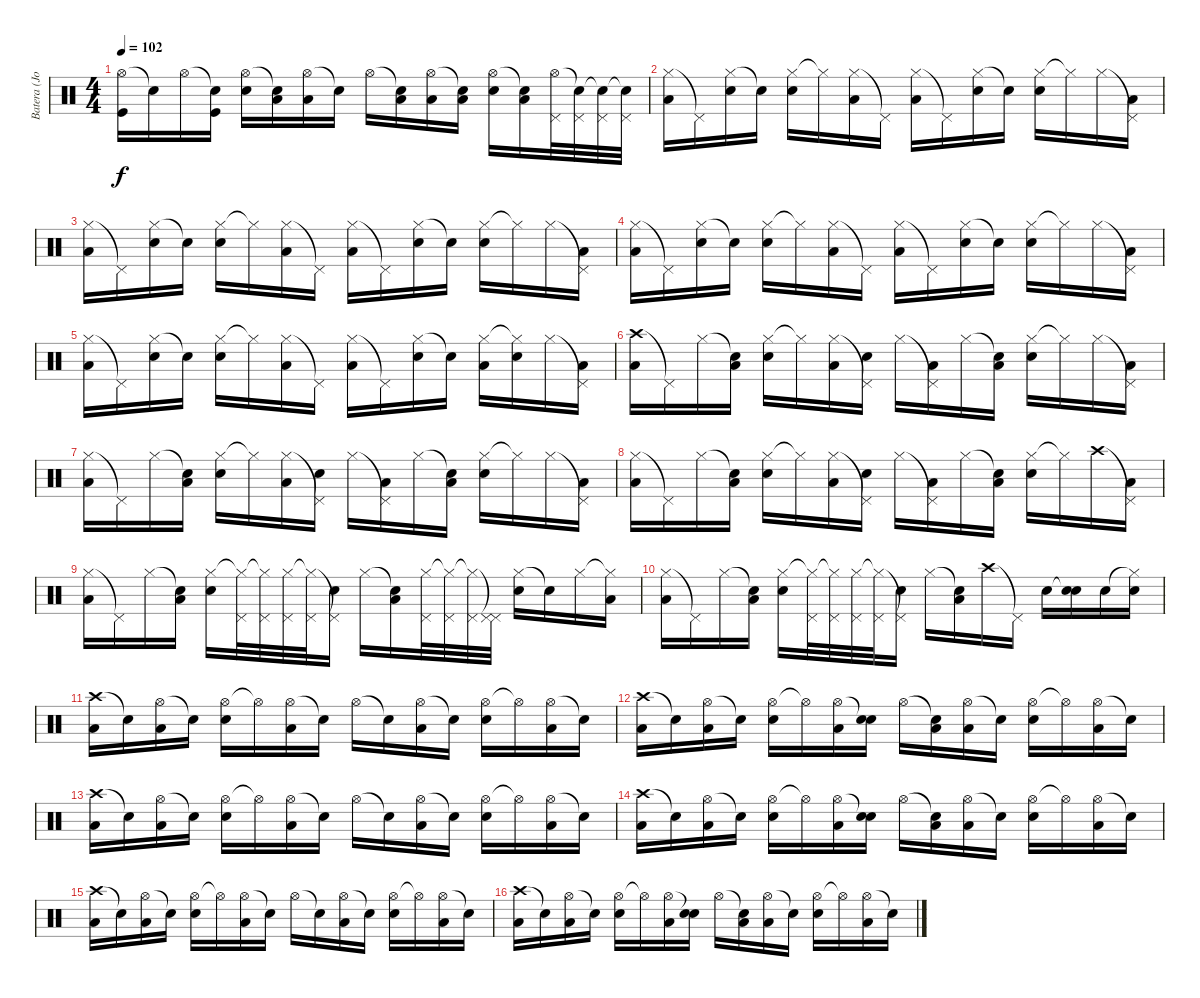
\track ("Batera (John)" "Batera (Jo") {instrument percussion}
\staff {score}
\articulation defaults
\ts (4 4)
\tempo 102
\clef neutral
\ks c
("Hi-Hat (open)" "Kick (hit)").16{dy f} "Snare (hit)"{t}.16 "Hi-Hat (open)".16 ("Snare (hit)"{t} "Kick (hit)").16 ("Hi-Hat (open)" "Snare (hit) 2").16 ("Snare (hit)"{t} "Low Tom (hit)").16 ("Hi-Hat (open)" "Low Tom (hit)").16 "Snare (hit)"{t}.16 "Hi-Hat (open)".16 ("Snare (hit)"{t} "Low Tom (hit)").16 ("Hi-Hat (open)" "Low Tom (hit)").16 ("Snare (hit)"{t} "Low Tom (hit)").16 ("Hi-Hat (open)" "Snare (hit) 2").16 ("Snare (hit)"{t} "Low Tom (hit)").16 ("Hi-Hat (open)" "Pedal Hi-Hat (hit)").32 ("Snare (hit)"{t} "Pedal Hi-Hat (hit)").32 ("Snare (hit)"{t} "Pedal Hi-Hat (hit)").32 ("Snare (hit)"{t} "Pedal Hi-Hat (hit)").32 |
("Hi-Hat (closed)" "Low Tom (hit)").16 "Pedal Hi-Hat (hit)"{t}.16 ("Hi-Hat (closed)" "Snare (hit) 2").16 "Snare (hit)"{t}.16 ("Hi-Hat (closed)" "Snare (hit) 2").16 "Hi-Hat (closed)"{t}.16 ("Hi-Hat (closed)" "Low Tom (hit)").16 "Pedal Hi-Hat (hit)"{t}.16 ("Hi-Hat (closed)" "Low Tom (hit)").16 "Pedal Hi-Hat (hit)"{t}.16 ("Hi-Hat (closed)" "Snare (hit) 2").16 "Snare (hit)"{t}.16 ("Hi-Hat (closed)" "Snare (hit) 2").16 "Hi-Hat (closed)"{t}.16 "Hi-Hat (closed)".16 ("Pedal Hi-Hat (hit)"{t} "Low Tom (hit)").16 |
("Hi-Hat (closed)" "Low Tom (hit)").16 "Pedal Hi-Hat (hit)"{t}.16 ("Hi-Hat (closed)" "Snare (hit) 2").16 "Snare (hit)"{t}.16 ("Hi-Hat (closed)" "Snare (hit) 2").16 "Hi-Hat (closed)"{t}.16 ("Hi-Hat (closed)" "Low Tom (hit)").16 "Pedal Hi-Hat (hit)"{t}.16 ("Hi-Hat (closed)" "Low Tom (hit)").16 "Pedal Hi-Hat (hit)"{t}.16 ("Hi-Hat (closed)" "Snare (hit) 2").16 "Snare (hit)"{t}.16 ("Hi-Hat (closed)" "Snare (hit) 2").16 "Hi-Hat (closed)"{t}.16 "Hi-Hat (closed)".16 ("Pedal Hi-Hat (hit)"{t} "Low Tom (hit)").16 |
("Hi-Hat (closed)" "Low Tom (hit)").16 "Pedal Hi-Hat (hit)"{t}.16 ("Hi-Hat (closed)" "Snare (hit) 2").16 "Snare (hit)"{t}.16 ("Hi-Hat (closed)" "Snare (hit) 2").16 "Hi-Hat (closed)"{t}.16 ("Hi-Hat (closed)" "Low Tom (hit)").16 "Pedal Hi-Hat (hit)"{t}.16 ("Hi-Hat (closed)" "Low Tom (hit)").16 "Pedal Hi-Hat (hit)"{t}.16 ("Hi-Hat (closed)" "Snare (hit) 2").16 "Snare (hit)"{t}.16 ("Hi-Hat (closed)" "Snare (hit) 2").16 "Hi-Hat (closed)"{t}.16 "Hi-Hat (closed)".16 ("Pedal Hi-Hat (hit)"{t} "Low Tom (hit)").16 |
("Hi-Hat (closed)" "Low Tom (hit)").16 "Pedal Hi-Hat (hit)"{t}.16 ("Hi-Hat (closed)" "Snare (hit) 2").16 "Snare (hit)"{t}.16 ("Hi-Hat (closed)" "Snare (hit) 2").16 "Hi-Hat (closed)"{t}.16 ("Hi-Hat (closed)" "Low Tom (hit)").16 "Pedal Hi-Hat (hit)"{t}.16 ("Hi-Hat (closed)" "Low Tom (hit)").16 "Pedal Hi-Hat (hit)"{t}.16 ("Hi-Hat (closed)" "Snare (hit) 2").16 "Snare (hit)"{t}.16 ("Hi-Hat (closed)" "Low Tom (hit)").16 ("Hi-Hat (closed)"{t} "Snare (hit) 2").16 "Hi-Hat (closed)".16 ("Pedal Hi-Hat (hit)"{t} "Low Tom (hit)").16 |
("Crash high (hit)" "Low Tom (hit)").16 "Pedal Hi-Hat (hit)"{t}.16 "Hi-Hat (closed)".16 ("Snare (hit)"{t} "Low Tom (hit)").16 ("Hi-Hat (closed)" "Snare (hit) 2").16 "Hi-Hat (closed)"{t}.16 ("Hi-Hat (closed)" "Low Tom (hit)").16 ("Pedal Hi-Hat (hit)"{t} "Snare (hit) 2").16 "Hi-Hat (closed)".16 ("Pedal Hi-Hat (hit)"{t} "Low Tom (hit)").16 "Hi-Hat (closed)".16 ("Snare (hit)"{t} "Low Tom (hit)").16 ("Hi-Hat (closed)" "Snare (hit) 2").16 "Hi-Hat (closed)"{t}.16 "Hi-Hat (closed)".16 ("Pedal Hi-Hat (hit)"{t} "Low Tom (hit)").16 |
("Hi-Hat (closed)" "Low Tom (hit)").16 "Pedal Hi-Hat (hit)"{t}.16 "Hi-Hat (closed)".16 ("Snare (hit)"{t} "Low Tom (hit)").16 ("Hi-Hat (closed)" "Snare (hit) 2").16 "Hi-Hat (closed)"{t}.16 ("Hi-Hat (closed)" "Low Tom (hit)").16 ("Pedal Hi-Hat (hit)"{t} "Snare (hit) 2").16 "Hi-Hat (closed)".16 ("Pedal Hi-Hat (hit)"{t} "Low Tom (hit)").16 "Hi-Hat (closed)".16 ("Snare (hit)"{t} "Low Tom (hit)").16 ("Hi-Hat (closed)" "Snare (hit) 2").16 "Hi-Hat (closed)"{t}.16 "Hi-Hat (closed)".16 ("Pedal Hi-Hat (hit)"{t} "Low Tom (hit)").16 |
("Hi-Hat (closed)" "Low Tom (hit)").16 "Pedal Hi-Hat (hit)"{t}.16 "Hi-Hat (closed)".16 ("Snare (hit)"{t} "Low Tom (hit)").16 ("Hi-Hat (closed)" "Snare (hit) 2").16 "Hi-Hat (closed)"{t}.16 ("Hi-Hat (closed)" "Low Tom (hit)").16 ("Pedal Hi-Hat (hit)"{t} "Snare (hit) 2").16 "Hi-Hat (closed)".16 ("Pedal Hi-Hat (hit)"{t} "Low Tom (hit)").16 "Hi-Hat (closed)".16 ("Snare (hit)"{t} "Low Tom (hit)").16 ("Hi-Hat (closed)" "Snare (hit) 2").16 "Hi-Hat (closed)"{t}.16 "Crash high (hit)".16 ("Pedal Hi-Hat (hit)"{t} "Low Tom (hit)").16 |
("Hi-Hat (closed)" "Low Tom (hit)").16 "Pedal Hi-Hat (hit)"{t}.16 "Hi-Hat (closed)".16 ("Snare (hit)"{t} "Low Tom (hit)").16 ("Hi-Hat (closed)" "Snare (hit) 2").16 ("Hi-Hat (closed)"{t} "Pedal Hi-Hat (hit)").32 ("Hi-Hat (closed)"{t} "Pedal Hi-Hat (hit)").32 ("Hi-Hat (closed)" "Pedal Hi-Hat (hit)").32 ("Hi-Hat (closed)"{t} "Pedal Hi-Hat (hit)").32 ("Pedal Hi-Hat (hit)"{t} "Snare (hit) 2").16 "Hi-Hat (closed)".16 ("Snare (hit)"{t} "Low Tom (hit)").16 ("Hi-Hat (closed)" "Pedal Hi-Hat (hit)").32 ("Hi-Hat (closed)"{t} "Pedal Hi-Hat (hit)").32 ("Hi-Hat (closed)"{t} "Pedal Hi-Hat (hit)").32 ("Pedal Hi-Hat (hit)"{t} "Pedal Hi-Hat (hit)").32 ("Hi-Hat (closed)" "Snare (hit) 2").16 "Snare (hit)"{t}.16 "Hi-Hat (closed)".16 ("Hi-Hat (closed)"{t} "Low Tom (hit)").16 |
("Hi-Hat (closed)" "Low Tom (hit)").16 "Pedal Hi-Hat (hit)"{t}.16 "Hi-Hat (closed)".16 ("Snare (hit)"{t} "Low Tom (hit)").16 ("Hi-Hat (closed)" "Snare (hit) 2").16 ("Hi-Hat (closed)"{t} "Pedal Hi-Hat (hit)").32 ("Hi-Hat (closed)"{t} "Pedal Hi-Hat (hit)").32 ("Hi-Hat (closed)" "Pedal Hi-Hat (hit)").32 ("Hi-Hat (closed)"{t} "Pedal Hi-Hat (hit)").32 ("Pedal Hi-Hat (hit)"{t} "Snare (hit) 2").16 "Hi-Hat (closed)".16 ("Snare (hit)"{t} "Low Tom (hit)").16 "Crash high (hit)".16 "Pedal Hi-Hat (hit)"{t}.16 "Snare (hit) 2".16 ("Snare (hit)"{t} "Snare (hit) 2").16 "Snare (hit) 2".16 ("Hi-Hat (closed)"{t} "Snare (hit) 2").16 |
("Crash high (hit)" "Low Tom (hit)").16 "Snare (hit)"{t}.16 ("Hi-Hat (open)" "Low Tom (hit)").16 "Snare (hit)"{t}.16 ("Hi-Hat (open)" "Snare (hit) 2").16 "Hi-Hat (open)"{t}.16 ("Hi-Hat (open)" "Low Tom (hit)").16 "Snare (hit)"{t}.16 "Hi-Hat (open)".16 "Snare (hit)"{t}.16 ("Hi-Hat (open)" "Low Tom (hit)").16 "Snare (hit)"{t}.16 ("Hi-Hat (open)" "Snare (hit) 2").16 "Hi-Hat (open)"{t}.16 ("Hi-Hat (open)" "Low Tom (hit)").16 "Snare (hit)"{t}.16 |
("Crash high (hit)" "Low Tom (hit)").16 "Snare (hit)"{t}.16 ("Hi-Hat (open)" "Low Tom (hit)").16 "Snare (hit)"{t}.16 ("Hi-Hat (open)" "Snare (hit) 2").16 "Hi-Hat (open)"{t}.16 ("Hi-Hat (open)" "Low Tom (hit)").16 ("Snare (hit)"{t} "Snare (hit) 2").16 "Hi-Hat (open)".16 ("Snare (hit)"{t} "Low Tom (hit)").16 ("Hi-Hat (open)" "Low Tom (hit)").16 "Snare (hit)"{t}.16 ("Hi-Hat (open)" "Snare (hit) 2").16 "Hi-Hat (open)"{t}.16 ("Hi-Hat (open)" "Low Tom (hit)").16 "Snare (hit)"{t}.16 |
("Crash high (hit)" "Low Tom (hit)").16 "Snare (hit)"{t}.16 ("Hi-Hat (open)" "Low Tom (hit)").16 "Snare (hit)"{t}.16 ("Hi-Hat (open)" "Snare (hit) 2").16 "Hi-Hat (open)"{t}.16 ("Hi-Hat (open)" "Low Tom (hit)").16 "Snare (hit)"{t}.16 "Hi-Hat (open)".16 "Snare (hit)"{t}.16 ("Hi-Hat (open)" "Low Tom (hit)").16 "Snare (hit)"{t}.16 ("Hi-Hat (open)" "Snare (hit) 2").16 "Hi-Hat (open)"{t}.16 ("Hi-Hat (open)" "Low Tom (hit)").16 "Snare (hit)"{t}.16 |
("Crash high (hit)" "Low Tom (hit)").16 "Snare (hit)"{t}.16 ("Hi-Hat (open)" "Low Tom (hit)").16 "Snare (hit)"{t}.16 ("Hi-Hat (open)" "Snare (hit) 2").16 "Hi-Hat (open)"{t}.16 ("Hi-Hat (open)" "Low Tom (hit)").16 ("Snare (hit)"{t} "Snare (hit) 2").16 "Hi-Hat (open)".16 ("Snare (hit)"{t} "Low Tom (hit)").16 ("Hi-Hat (open)" "Low Tom (hit)").16 "Snare (hit)"{t}.16 ("Hi-Hat (open)" "Snare (hit) 2").16 "Hi-Hat (open)"{t}.16 ("Hi-Hat (open)" "Low Tom (hit)").16 "Snare (hit)"{t}.16 |
("Crash high (hit)" "Low Tom (hit)").16 "Snare (hit)"{t}.16 ("Hi-Hat (open)" "Low Tom (hit)").16 "Snare (hit)"{t}.16 ("Hi-Hat (open)" "Snare (hit) 2").16 "Hi-Hat (open)"{t}.16 ("Hi-Hat (open)" "Low Tom (hit)").16 "Snare (hit)"{t}.16 "Hi-Hat (open)".16 "Snare (hit)"{t}.16 ("Hi-Hat (open)" "Low Tom (hit)").16 "Snare (hit)"{t}.16 ("Hi-Hat (open)" "Snare (hit) 2").16 "Hi-Hat (open)"{t}.16 ("Hi-Hat (open)" "Low Tom (hit)").16 "Snare (hit)"{t}.16 |
("Crash high (hit)" "Low Tom (hit)").16 "Snare (hit)"{t}.16 ("Hi-Hat (open)" "Low Tom (hit)").16 "Snare (hit)"{t}.16 ("Hi-Hat (open)" "Snare (hit) 2").16 "Hi-Hat (open)"{t}.16 ("Hi-Hat (open)" "Low Tom (hit)").16 ("Snare (hit)"{t} "Snare (hit) 2").16 "Hi-Hat (open)".16 ("Snare (hit)"{t} "Low Tom (hit)").16 ("Hi-Hat (open)" "Low Tom (hit)").16 "Snare (hit)"{t}.16 ("Hi-Hat (open)" "Snare (hit) 2").16 "Hi-Hat (open)"{t}.16 ("Hi-Hat (open)" "Low Tom (hit)").16 "Snare (hit)"{t}.16
